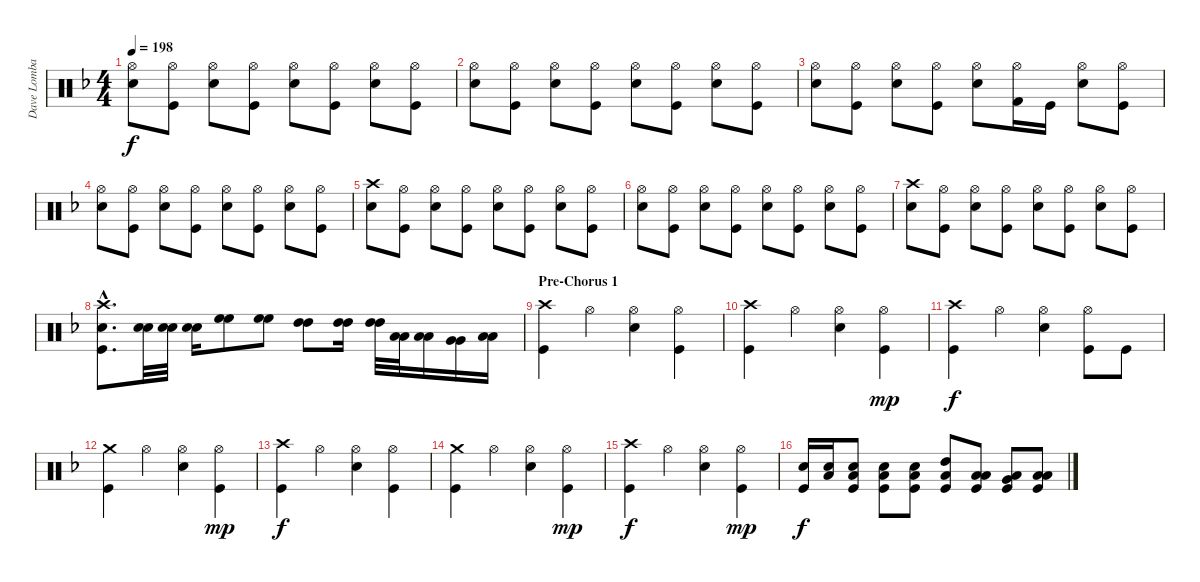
\track ("Dave Lombardo - Drums" "Dave Lomba") {instrument percussion}
\staff {score}
\articulation defaults
\ts (4 4)
\tempo 198
\clef neutral
\ks f
("Hi-Hat (open)" "Snare (hit) 2").8{dy f} ("Hi-Hat (open)" "Kick (hit)").8 ("Hi-Hat (open)" "Snare (hit) 2").8 ("Hi-Hat (open)" "Kick (hit)").8 ("Hi-Hat (open)" "Snare (hit) 2").8 ("Hi-Hat (open)" "Kick (hit)").8 ("Hi-Hat (open)" "Snare (hit) 2").8 ("Hi-Hat (open)" "Kick (hit)").8 |
("Hi-Hat (open)" "Snare (hit) 2").8 ("Hi-Hat (open)" "Kick (hit)").8 ("Hi-Hat (open)" "Snare (hit) 2").8 ("Hi-Hat (open)" "Kick (hit)").8 ("Hi-Hat (open)" "Snare (hit) 2").8 ("Hi-Hat (open)" "Kick (hit)").8 ("Hi-Hat (open)" "Snare (hit) 2").8 ("Hi-Hat (open)" "Kick (hit)").8 |
("Hi-Hat (open)" "Snare (hit) 2").8 ("Hi-Hat (open)" "Kick (hit)").8 ("Hi-Hat (open)" "Snare (hit) 2").8 ("Hi-Hat (open)" "Kick (hit)").8 ("Hi-Hat (open)" "Snare (hit) 2").8 ("Hi-Hat (open)" "Kick (hit) 2").16 "Kick (hit)".16 ("Hi-Hat (open)" "Snare (hit) 2").8 ("Hi-Hat (open)" "Kick (hit)").8 |
("Hi-Hat (open)" "Snare (hit) 2").8 ("Hi-Hat (open)" "Kick (hit)").8 ("Hi-Hat (open)" "Snare (hit) 2").8 ("Hi-Hat (open)" "Kick (hit)").8 ("Hi-Hat (open)" "Snare (hit) 2").8 ("Hi-Hat (open)" "Kick (hit)").8 ("Hi-Hat (open)" "Snare (hit) 2").8 ("Hi-Hat (open)" "Kick (hit)").8 |
("Crash high (hit)" "Snare (hit) 2").8 ("Hi-Hat (open)" "Kick (hit)").8 ("Hi-Hat (open)" "Snare (hit) 2").8 ("Hi-Hat (open)" "Kick (hit)").8 ("Hi-Hat (open)" "Snare (hit) 2").8 ("Hi-Hat (open)" "Kick (hit)").8 ("Hi-Hat (open)" "Snare (hit) 2").8 ("Hi-Hat (open)" "Kick (hit)").8 |
("Hi-Hat (open)" "Snare (hit) 2").8 ("Hi-Hat (open)" "Kick (hit)").8 ("Hi-Hat (open)" "Snare (hit) 2").8 ("Hi-Hat (open)" "Kick (hit)").8 ("Hi-Hat (open)" "Snare (hit) 2").8 ("Hi-Hat (open)" "Kick (hit)").8 ("Hi-Hat (open)" "Snare (hit) 2").8 ("Hi-Hat (open)" "Kick (hit)").8 |
("Crash high (hit)" "Snare (hit) 2").8 ("Hi-Hat (open)" "Kick (hit)").8 ("Hi-Hat (open)" "Snare (hit) 2").8 ("Hi-Hat (open)" "Kick (hit)").8 ("Hi-Hat (open)" "Snare (hit) 2").8 ("Hi-Hat (open)" "Kick (hit)").8 ("Hi-Hat (open)" "Snare (hit) 2").8 ("Hi-Hat (open)" "Kick (hit)").8 |
("Crash high (hit)"{hac} "Snare (hit) 2"{hac} "Kick (hit)"{hac}).8{d} ("Snare (hit) 2" "Snare (hit) 2").32 ("Snare (hit) 2" "Snare (hit) 2").32 ("Snare (hit) 2" "Snare (hit) 2").16 ("High Floor Tom (hit)" "High Floor Tom (hit)").8 ("High Floor Tom (hit)" "High Floor Tom (hit)").8 ("High Tom (hit)" "High Tom (hit)").8 ("High Tom (hit)" "High Tom (hit)").16 ("High Tom (hit)" "High Tom (hit)").32 ("Low Tom (hit)" "Low Tom (hit)").32 ("Low Tom (hit)" "Low Tom (hit)").16 ("Very Low Tom (hit)" "Very Low Tom (hit)").16 ("Low Floor Tom (hit)" "Low Floor Tom (hit)").16 |
\section ("" "Pre-Chorus 1")
("Crash high (hit)" "Kick (hit)").4 "Hi-Hat (open)".4 ("Snare (hit) 2" "Hi-Hat (open)").4 ("Hi-Hat (open)" "Kick (hit)").4 |
("Crash high (hit)" "Kick (hit)").4 "Hi-Hat (open)".4 ("Snare (hit) 2" "Hi-Hat (open)").4 ("Hi-Hat (open)" "Kick (hit)").4{dy mp} |
("Crash high (hit)" "Kick (hit)").4{dy f} "Hi-Hat (open)".4 ("Snare (hit) 2" "Hi-Hat (open)").4 ("Hi-Hat (open)" "Kick (hit)").8 "Kick (hit)".8 |
("Crash medium (hit)" "Kick (hit)").4 "Hi-Hat (open)".4 ("Snare (hit) 2" "Hi-Hat (open)").4 ("Hi-Hat (open)" "Kick (hit)").4{dy mp} |
("Crash high (hit)" "Kick (hit)").4{dy f} "Hi-Hat (open)".4 ("Snare (hit) 2" "Hi-Hat (open)").4 ("Hi-Hat (open)" "Kick (hit)").4 |
("Crash medium (hit)" "Kick (hit)").4 "Hi-Hat (open)".4 ("Snare (hit) 2" "Hi-Hat (open)").4 ("Hi-Hat (open)" "Kick (hit)").4{dy mp} |
("Crash high (hit)" "Kick (hit)").4{dy f} "Hi-Hat (open)".4 ("Snare (hit) 2" "Hi-Hat (open)").4 ("Hi-Hat (open)" "Kick (hit)").4{dy mp} |
("Kick (hit)" "Snare (hit) 2").16{dy f} ("Snare (hit) 2" "Low Tom (hit)").16 ("Kick (hit)" "Snare (hit) 2" "Low Tom (hit)").8 ("Kick (hit)" "Snare (hit) 2" "Low Tom (hit)").8 ("Kick (hit)" "Snare (hit) 2" "Low Tom (hit)").8 ("Kick (hit)" "Low Tom (hit)" "High Tom (hit)").8 ("Kick (hit)" "Low Tom (hit)" "Low Tom (hit)").8 ("Kick (hit)" "Low Tom (hit)" "Very Low Tom (hit)").8 ("Kick (hit)" "Low Tom (hit)" "Low Floor Tom (hit)").8
